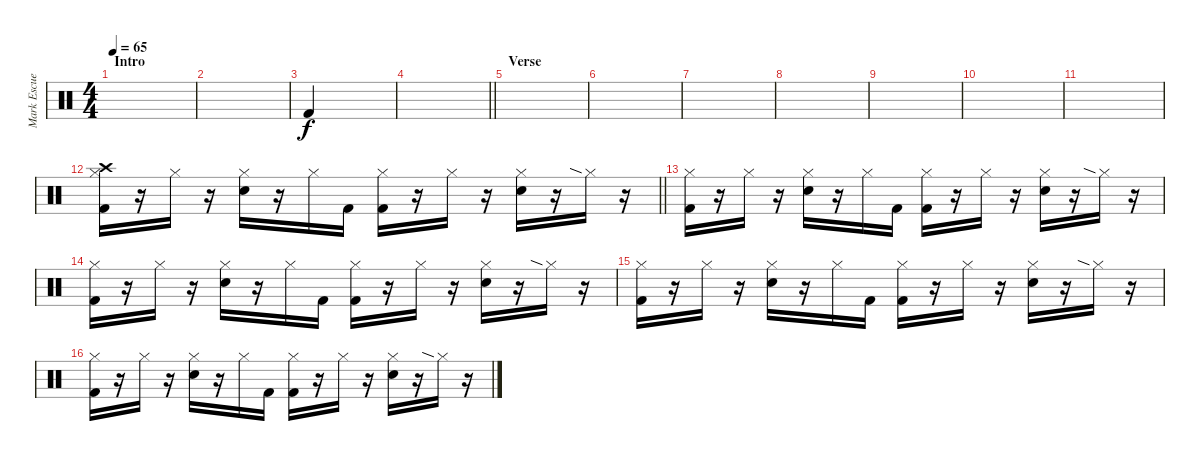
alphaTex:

\track ("Mark Escueta" "Mark Escue") {instrument percussion}
\staff {score}
\articulation defaults
\ts (4 4)
\section ("" "Intro")
\tempo 65
\clef neutral
\ks c
|
|
"Kick (hit) 2".4 |
\barLineRight lightlight
|
\section ("" "Verse")
|
|
|
|
|
|
|
\barLineRight lightlight
("Crash high (hit)" "Hi-Hat (closed)" "Kick (hit) 2").16 r.16 "Hi-Hat (closed)".16 r.16 ("Hi-Hat (closed)" "Electric Snare (hit)").16 r.16 "Hi-Hat (closed)".16 "Kick (hit) 2".16 ("Hi-Hat (closed)" "Kick (hit) 2").16 r.16 "Hi-Hat (closed)".16 r.16 ("Hi-Hat (closed)" "Electric Snare (hit)").16 r.16 "Hi-Hat (closed)"{sia}.16 r.16 |
("Hi-Hat (closed)" "Kick (hit) 2").16 r.16 "Hi-Hat (closed)".16 r.16 ("Hi-Hat (closed)" "Electric Snare (hit)").16 r.16 "Hi-Hat (closed)".16 "Kick (hit) 2".16 ("Hi-Hat (closed)" "Kick (hit) 2").16 r.16 "Hi-Hat (closed)".16 r.16 ("Hi-Hat (closed)" "Electric Snare (hit)").16 r.16 "Hi-Hat (closed)"{sia}.16 r.16 |
("Hi-Hat (closed)" "Kick (hit) 2").16 r.16 "Hi-Hat (closed)".16 r.16 ("Hi-Hat (closed)" "Electric Snare (hit)").16 r.16 "Hi-Hat (closed)".16 "Kick (hit) 2".16 ("Hi-Hat (closed)" "Kick (hit) 2").16 r.16 "Hi-Hat (closed)".16 r.16 ("Hi-Hat (closed)" "Electric Snare (hit)").16 r.16 "Hi-Hat (closed)"{sia}.16 r.16 |
("Hi-Hat (closed)" "Kick (hit) 2").16 r.16 "Hi-Hat (closed)".16 r.16 ("Hi-Hat (closed)" "Electric Snare (hit)").16 r.16 "Hi-Hat (closed)".16 "Kick (hit) 2".16 ("Hi-Hat (closed)" "Kick (hit) 2").16 r.16 "Hi-Hat (closed)".16 r.16 ("Hi-Hat (closed)" "Electric Snare (hit)").16 r.16 "Hi-Hat (closed)"{sia}.16 r.16 |
("Hi-Hat (closed)" "Kick (hit) 2").16 r.16 "Hi-Hat (closed)".16 r.16 ("Hi-Hat (closed)" "Electric Snare (hit)").16 r.16 "Hi-Hat (closed)".16 "Kick (hit) 2".16 ("Hi-Hat (closed)" "Kick (hit) 2").16 r.16 "Hi-Hat (closed)".16 r.16 ("Hi-Hat (closed)" "Electric Snare (hit)").16 r.16 "Hi-Hat (closed)"{sia}.16 r.16
